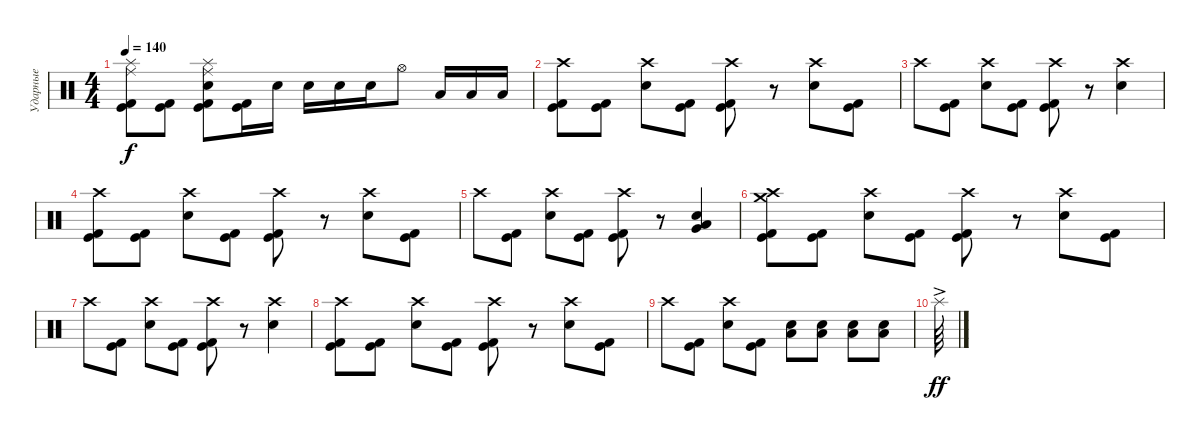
\track ("Ударные" "Ударные") {instrument percussion}
\staff {score}
\articulation defaults
\ts (4 4)
\tempo 140
\clef neutral
\ks c
("Ride (middle)" "Splash (hit)" "Kick (hit) 2" "Kick (hit)").8{dy f} ("Kick (hit)" "Kick (hit) 2").8 ("Ride (middle)" "Splash (hit)" "Kick (hit) 2" "Kick (hit)" "Electric Snare (hit)").8 ("Kick (hit)" "Kick (hit) 2").16 "Electric Snare (hit)".16 "Electric Snare (hit)".16 "Electric Snare (hit)".16 "Electric Snare (hit)".16 "Hi-Hat (open)".8 "Low Floor Tom (hit)".16 "Low Floor Tom (hit)".16 "Low Floor Tom (hit)".16 |
("Crash high (hit)" "Kick (hit)" "Kick (hit) 2").8 ("Kick (hit) 2" "Kick (hit)").8 ("Crash high (hit)" "Electric Snare (hit)").8 ("Kick (hit)" "Kick (hit) 2").8 ("Crash high (hit)" "Kick (hit) 2" "Kick (hit)").8 r.8 ("Crash high (hit)" "Electric Snare (hit)").8 ("Kick (hit)" "Kick (hit) 2").8 |
"Crash high (hit)".8 ("Kick (hit)" "Kick (hit) 2").8 ("Crash high (hit)" "Electric Snare (hit)").8 ("Kick (hit)" "Kick (hit) 2").8 ("Crash high (hit)" "Kick (hit) 2" "Kick (hit)").8 r.8 ("Crash high (hit)" "Electric Snare (hit)").4 |
("Crash high (hit)" "Kick (hit)" "Kick (hit) 2").8 ("Kick (hit) 2" "Kick (hit)").8 ("Crash high (hit)" "Electric Snare (hit)").8 ("Kick (hit)" "Kick (hit) 2").8 ("Crash high (hit)" "Kick (hit) 2" "Kick (hit)").8 r.8 ("Crash high (hit)" "Electric Snare (hit)").8 ("Kick (hit)" "Kick (hit) 2").8 |
"Crash high (hit)".8 ("Kick (hit)" "Kick (hit) 2").8 ("Crash high (hit)" "Electric Snare (hit)").8 ("Kick (hit)" "Kick (hit) 2").8 ("Crash high (hit)" "Kick (hit) 2" "Kick (hit)").8 r.8 ("Very Low Tom (hit)" "Low Floor Tom (hit)" "Electric Snare (hit)").4 |
("Crash medium (hit)" "Crash high (hit)" "Kick (hit)" "Kick (hit) 2").8 ("Kick (hit) 2" "Kick (hit)").8 ("Crash high (hit)" "Electric Snare (hit)").8 ("Kick (hit)" "Kick (hit) 2").8 ("Crash high (hit)" "Kick (hit) 2" "Kick (hit)").8 r.8 ("Crash high (hit)" "Electric Snare (hit)").8 ("Kick (hit)" "Kick (hit) 2").8 |
"Crash high (hit)".8 ("Kick (hit)" "Kick (hit) 2").8 ("Crash high (hit)" "Electric Snare (hit)").8 ("Kick (hit)" "Kick (hit) 2").8 ("Crash high (hit)" "Kick (hit) 2" "Kick (hit)").8 r.8 ("Crash high (hit)" "Electric Snare (hit)").4 |
("Crash high (hit)" "Kick (hit)" "Kick (hit) 2").8 ("Kick (hit) 2" "Kick (hit)").8 ("Crash high (hit)" "Electric Snare (hit)").8 ("Kick (hit)" "Kick (hit) 2").8 ("Crash high (hit)" "Kick (hit) 2" "Kick (hit)").8 r.8 ("Crash high (hit)" "Electric Snare (hit)").8 ("Kick (hit)" "Kick (hit) 2").8 |
"Crash high (hit)".8 ("Kick (hit)" "Kick (hit) 2").8 ("Crash high (hit)" "Electric Snare (hit)").8 ("Kick (hit)" "Kick (hit) 2").8 ("Electric Snare (hit)" "Low Floor Tom (hit)").8 ("Electric Snare (hit)" "Low Floor Tom (hit)").8 ("Electric Snare (hit)" "Low Floor Tom (hit)").8 ("Electric Snare (hit)" "Low Floor Tom (hit)").8 |
"Splash (hit)"{ac}.64{dy ff}
